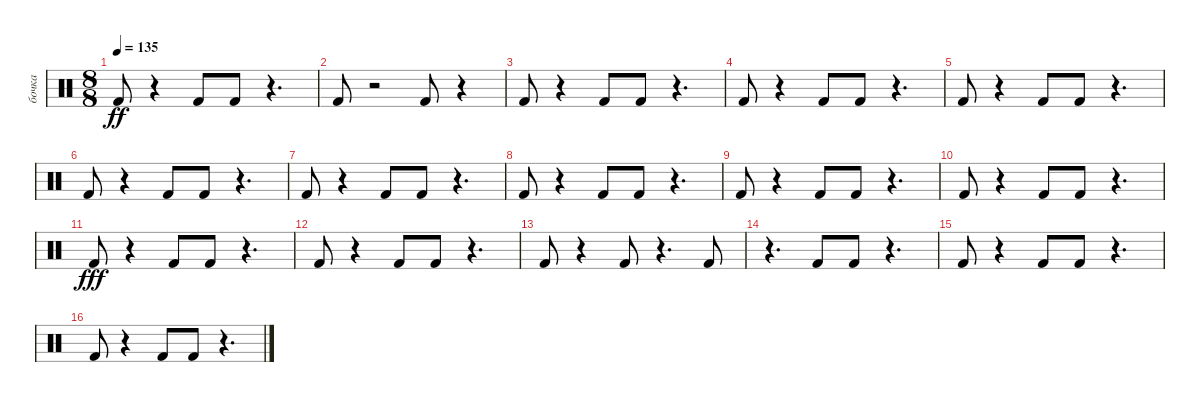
\track ("бочка" "бочка") {instrument percussion}
\staff {score}
\articulation defaults
\ts (8 8)
\tempo 135
\clef neutral
\ks c "Kick (hit) 2".8{dy ff}
r.4 "Kick (hit) 2".8 "Kick (hit) 2".8 r.4{d} |
"Kick (hit) 2".8 r.2 "Kick (hit) 2".8 r.4 |
"Kick (hit) 2".8 r.4 "Kick (hit) 2".8 "Kick (hit) 2".8 r.4{d} |
"Kick (hit) 2".8 r.4 "Kick (hit) 2".8 "Kick (hit) 2".8 r.4{d} |
"Kick (hit) 2".8 r.4 "Kick (hit) 2".8 "Kick (hit) 2".8 r.4{d} |
"Kick (hit) 2".8 r.4 "Kick (hit) 2".8 "Kick (hit) 2".8 r.4{d} |
"Kick (hit) 2".8 r.4 "Kick (hit) 2".8 "Kick (hit) 2".8 r.4{d} |
"Kick (hit) 2".8 r.4 "Kick (hit) 2".8 "Kick (hit) 2".8 r.4{d} |
"Kick (hit) 2".8 r.4 "Kick (hit) 2".8 "Kick (hit) 2".8 r.4{d} |
"Kick (hit) 2".8 r.4 "Kick (hit) 2".8 "Kick (hit) 2".8 r.4{d} |
"Kick (hit) 2".8{dy fff} r.4 "Kick (hit) 2".8 "Kick (hit) 2".8 r.4{d} |
"Kick (hit) 2".8 r.4 "Kick (hit) 2".8 "Kick (hit) 2".8 r.4{d} |
"Kick (hit) 2".8 r.4 "Kick (hit) 2".8 r.4{d} "Kick (hit) 2".8 |
r.4{d} "Kick (hit) 2".8 "Kick (hit) 2".8 r.4{d} |
"Kick (hit) 2".8 r.4 "Kick (hit) 2".8 "Kick (hit) 2".8 r.4{d} |
"Kick (hit) 2".8 r.4 "Kick (hit) 2".8 "Kick (hit) 2".8 r.4{d}
